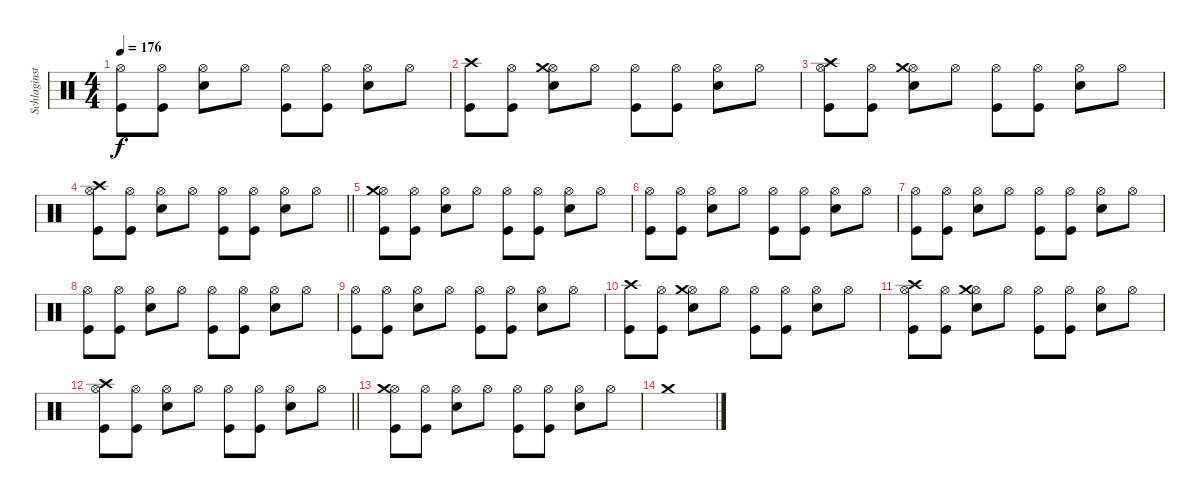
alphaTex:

\track ("Schlaginstrumente - Auswahl" "Schlaginst") {instrument percussion}
\staff {score}
\articulation defaults
\ts (4 4)
\tempo 176
\clef neutral
\ks c
("Hi-Hat (open)" "Kick (hit)").8{dy f} ("Hi-Hat (open)" "Kick (hit)").8 ("Hi-Hat (open)" "Snare (hit) 2").8 "Hi-Hat (open)".8 ("Hi-Hat (open)" "Kick (hit)").8 ("Hi-Hat (open)" "Kick (hit)").8 ("Hi-Hat (open)" "Snare (hit) 2").8 "Hi-Hat (open)".8 |
("Crash high (hit)" "Kick (hit)").8 ("Hi-Hat (open)" "Kick (hit)").8 ("Hi-Hat (open)" "Snare (hit) 2" "Crash medium (hit)").8 "Hi-Hat (open)".8 ("Hi-Hat (open)" "Kick (hit)").8 ("Hi-Hat (open)" "Kick (hit)").8 ("Hi-Hat (open)" "Snare (hit) 2").8 "Hi-Hat (open)".8 |
("Hi-Hat (open)" "Kick (hit)" "Crash high (hit)").8 ("Hi-Hat (open)" "Kick (hit)").8 ("Hi-Hat (open)" "Snare (hit) 2" "Crash medium (hit)").8 "Hi-Hat (open)".8 ("Hi-Hat (open)" "Kick (hit)").8 ("Hi-Hat (open)" "Kick (hit)").8 ("Hi-Hat (open)" "Snare (hit) 2").8 "Hi-Hat (open)".8 |
\barLineRight lightlight
("Kick (hit)" "Hi-Hat (open)" "Crash high (hit)").8 ("Kick (hit)" "Hi-Hat (open)").8 ("Hi-Hat (open)" "Snare (hit) 2").8 "Hi-Hat (open)".8 ("Hi-Hat (open)" "Kick (hit)").8 ("Hi-Hat (open)" "Kick (hit)").8 ("Hi-Hat (open)" "Snare (hit) 2").8 "Hi-Hat (open)".8 |
("Kick (hit)" "Hi-Hat (open)" "Crash medium (hit)").8 ("Kick (hit)" "Hi-Hat (open)").8 ("Hi-Hat (open)" "Snare (hit) 2").8 "Hi-Hat (open)".8 ("Hi-Hat (open)" "Kick (hit)").8 ("Hi-Hat (open)" "Kick (hit)").8 ("Hi-Hat (open)" "Snare (hit) 2").8 "Hi-Hat (open)".8 |
("Hi-Hat (open)" "Kick (hit)").8 ("Hi-Hat (open)" "Kick (hit)").8 ("Hi-Hat (open)" "Snare (hit) 2").8 "Hi-Hat (open)".8 ("Hi-Hat (open)" "Kick (hit)").8 ("Hi-Hat (open)" "Kick (hit)").8 ("Hi-Hat (open)" "Snare (hit) 2").8 "Hi-Hat (open)".8 |
("Hi-Hat (open)" "Kick (hit)").8 ("Hi-Hat (open)" "Kick (hit)").8 ("Hi-Hat (open)" "Snare (hit) 2").8 "Hi-Hat (open)".8 ("Hi-Hat (open)" "Kick (hit)").8 ("Hi-Hat (open)" "Kick (hit)").8 ("Hi-Hat (open)" "Snare (hit) 2").8 "Hi-Hat (open)".8 |
("Hi-Hat (open)" "Kick (hit)").8 ("Hi-Hat (open)" "Kick (hit)").8 ("Hi-Hat (open)" "Snare (hit) 2").8 "Hi-Hat (open)".8 ("Hi-Hat (open)" "Kick (hit)").8 ("Hi-Hat (open)" "Kick (hit)").8 ("Hi-Hat (open)" "Snare (hit) 2").8 "Hi-Hat (open)".8 |
("Hi-Hat (open)" "Kick (hit)").8 ("Hi-Hat (open)" "Kick (hit)").8 ("Hi-Hat (open)" "Snare (hit) 2").8 "Hi-Hat (open)".8 ("Hi-Hat (open)" "Kick (hit)").8 ("Hi-Hat (open)" "Kick (hit)").8 ("Hi-Hat (open)" "Snare (hit) 2").8 "Hi-Hat (open)".8 |
("Crash high (hit)" "Kick (hit)").8 ("Hi-Hat (open)" "Kick (hit)").8 ("Hi-Hat (open)" "Snare (hit) 2" "Crash medium (hit)").8 "Hi-Hat (open)".8 ("Hi-Hat (open)" "Kick (hit)").8 ("Hi-Hat (open)" "Kick (hit)").8 ("Hi-Hat (open)" "Snare (hit) 2").8 "Hi-Hat (open)".8 |
("Hi-Hat (open)" "Kick (hit)" "Crash high (hit)").8 ("Hi-Hat (open)" "Kick (hit)").8 ("Hi-Hat (open)" "Snare (hit) 2" "Crash medium (hit)").8 "Hi-Hat (open)".8 ("Hi-Hat (open)" "Kick (hit)").8 ("Hi-Hat (open)" "Kick (hit)").8 ("Hi-Hat (open)" "Snare (hit) 2").8 "Hi-Hat (open)".8 |
\barLineRight lightlight
("Kick (hit)" "Hi-Hat (open)" "Crash high (hit)").8 ("Kick (hit)" "Hi-Hat (open)").8 ("Hi-Hat (open)" "Snare (hit) 2").8 "Hi-Hat (open)".8 ("Hi-Hat (open)" "Kick (hit)").8 ("Hi-Hat (open)" "Kick (hit)").8 ("Hi-Hat (open)" "Snare (hit) 2").8 "Hi-Hat (open)".8 |
("Kick (hit)" "Hi-Hat (open)" "Crash medium (hit)").8 ("Kick (hit)" "Hi-Hat (open)").8 ("Hi-Hat (open)" "Snare (hit) 2").8 "Hi-Hat (open)".8 ("Hi-Hat (open)" "Kick (hit)").8 ("Hi-Hat (open)" "Kick (hit)").8 ("Hi-Hat (open)" "Snare (hit) 2").8 "Hi-Hat (open)".8 |
"Crash medium (hit)".1
